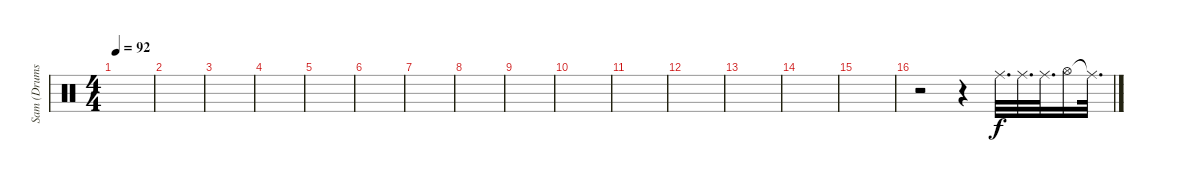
\track ("Sam (Drums)" "Sam (Drums") {instrument percussion}
\staff {score}
\articulation defaults
\ts (4 4)
\tempo 92
\clef neutral
\ks c
|
|
|
|
|
|
|
|
|
|
|
|
|
|
|
r.2 r.4 "Ride (middle)".32{d} "Ride (middle)".32{d} "Ride (middle)".32{d} "Hi-Hat (open)".16 "Ride (middle)"{t}.32{d}
